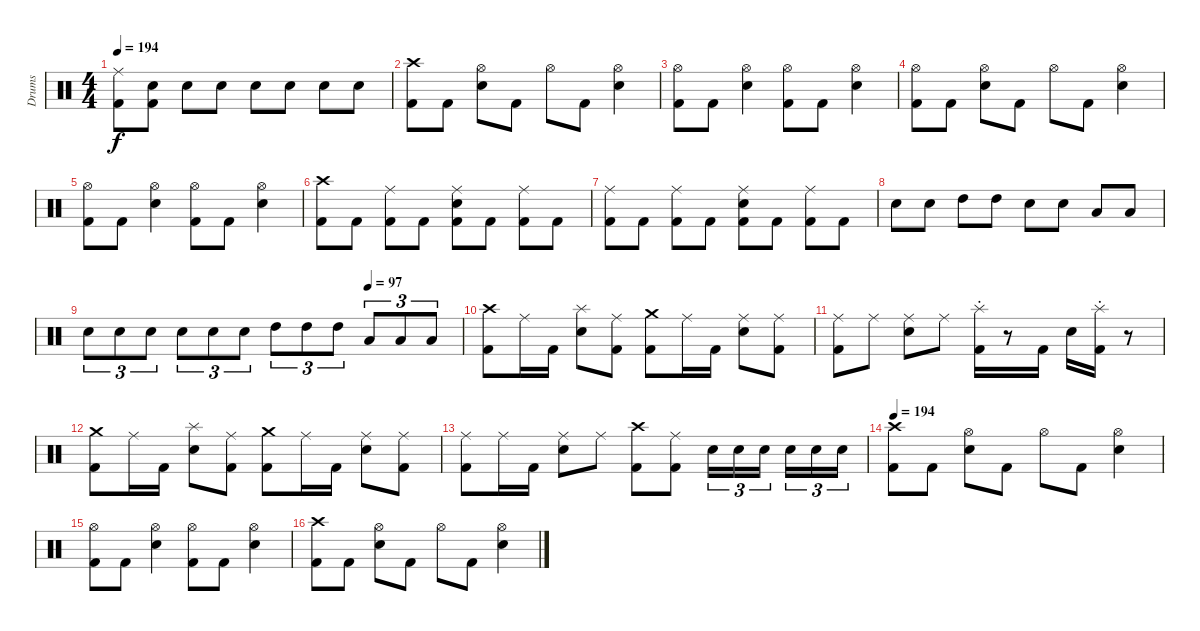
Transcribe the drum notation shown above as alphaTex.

\track ("Drums" "Drums") {instrument percussion}
\staff {score}
\articulation defaults
\ts (4 4)
\tempo 194
\clef neutral
\ks c
("Ride (middle)" "Kick (hit) 2").8{dy f} ("Electric Snare (hit)" "Kick (hit) 2").8 "Electric Snare (hit)".8 "Electric Snare (hit)".8 "Electric Snare (hit)".8 "Electric Snare (hit)".8 "Electric Snare (hit)".8 "Electric Snare (hit)".8 |
("Crash high (hit)" "Kick (hit) 2").8 "Kick (hit) 2".8 ("Hi-Hat (open)" "Electric Snare (hit)").8 "Kick (hit) 2".8 "Hi-Hat (open)".8 "Kick (hit) 2".8 ("Hi-Hat (open)" "Electric Snare (hit)").4 |
("Hi-Hat (open)" "Kick (hit) 2").8 "Kick (hit) 2".8 ("Hi-Hat (open)" "Electric Snare (hit)").4 ("Hi-Hat (open)" "Kick (hit) 2").8 "Kick (hit) 2".8 ("Hi-Hat (open)" "Electric Snare (hit)").4 |
("Hi-Hat (open)" "Kick (hit) 2").8 "Kick (hit) 2".8 ("Hi-Hat (open)" "Electric Snare (hit)").8 "Kick (hit) 2".8 "Hi-Hat (open)".8 "Kick (hit) 2".8 ("Hi-Hat (open)" "Electric Snare (hit)").4 |
("Hi-Hat (open)" "Kick (hit) 2").8 "Kick (hit) 2".8 ("Hi-Hat (open)" "Electric Snare (hit)").4 ("Hi-Hat (open)" "Kick (hit) 2").8 "Kick (hit) 2".8 ("Hi-Hat (open)" "Electric Snare (hit)").4 |
("Crash high (hit)" "Kick (hit) 2").8 "Kick (hit) 2".8 ("Ride (middle)" "Kick (hit) 2").8 "Kick (hit) 2".8 ("Ride (middle)" "Electric Snare (hit)" "Kick (hit) 2").8 "Kick (hit) 2".8 ("Ride (middle)" "Kick (hit) 2").8 "Kick (hit) 2".8 |
("Ride (middle)" "Kick (hit) 2").8 "Kick (hit) 2".8 ("Ride (middle)" "Kick (hit) 2").8 "Kick (hit) 2".8 ("Ride (middle)" "Electric Snare (hit)" "Kick (hit) 2").8 "Kick (hit) 2".8 ("Ride (middle)" "Kick (hit) 2").8 "Kick (hit) 2".8 |
"Electric Snare (hit)".8 "Electric Snare (hit)".8 "High Tom (hit)".8 "High Tom (hit)".8 "Electric Snare (hit)".8 "Electric Snare (hit)".8 "Low Tom (hit)".8 "Low Tom (hit)".8 |
\tempo (97 0.75)
"Electric Snare (hit)".8{tu (3 2)} "Electric Snare (hit)".8{tu (3 2)} "Electric Snare (hit)".8{tu (3 2)} "Electric Snare (hit)".8{tu (3 2)} "Electric Snare (hit)".8{tu (3 2)} "Electric Snare (hit)".8{tu (3 2)} "High Tom (hit)".8{tu (3 2)} "High Tom (hit)".8{tu (3 2)} "High Tom (hit)".8{tu (3 2)} "Low Tom (hit)".8{tu (3 2)} "Low Tom (hit)".8{tu (3 2)} "Low Tom (hit)".8{tu (3 2)} |
("Crash high (hit)" "Kick (hit) 2").8 "Ride (middle)".16 "Kick (hit) 2".16 ("Splash (hit)" "Electric Snare (hit)").8 ("Ride (middle)" "Kick (hit) 2").8 ("Crash medium (hit)" "Kick (hit) 2").8 "Ride (middle)".16 "Kick (hit) 2".16 ("Ride (middle)" "Electric Snare (hit)").8 ("Ride (middle)" "Kick (hit) 2").8 |
("Ride (middle)" "Kick (hit) 2").8 "Ride (middle)".8 ("Ride (middle)" "Electric Snare (hit)").8 "Ride (middle)".8 ("Splash (hit)"{st} "Kick (hit) 2").16 r.8 "Kick (hit) 2".16 "Electric Snare (hit)".16 ("Splash (hit)"{st} "Kick (hit) 2").16 r.8 |
("Crash medium (hit)" "Kick (hit) 2").8 "Ride (middle)".16 "Kick (hit) 2".16 ("Splash (hit)" "Electric Snare (hit)").8 ("Ride (middle)" "Kick (hit) 2").8 ("Crash medium (hit)" "Kick (hit) 2").8 "Ride (middle)".16 "Kick (hit) 2".16 ("Ride (middle)" "Electric Snare (hit)").8 ("Ride (middle)" "Kick (hit) 2").8 |
("Ride (middle)" "Kick (hit) 2").8 "Ride (middle)".16 "Kick (hit) 2".16 ("Ride (middle)" "Electric Snare (hit)").8 "Ride (middle)".8 ("Crash high (hit)" "Kick (hit) 2").8 ("Ride (middle)" "Kick (hit) 2").8 "Electric Snare (hit)".16{tu (3 2)} "Electric Snare (hit)".16{tu (3 2)} "Electric Snare (hit)".16{tu (3 2)} "Electric Snare (hit)".16{tu (3 2)} "Electric Snare (hit)".16{tu (3 2)} "Electric Snare (hit)".16{tu (3 2)} |
\tempo 194
("Crash high (hit)" "Kick (hit) 2").8 "Kick (hit) 2".8 ("Hi-Hat (open)" "Electric Snare (hit)").8 "Kick (hit) 2".8 "Hi-Hat (open)".8 "Kick (hit) 2".8 ("Hi-Hat (open)" "Electric Snare (hit)").4 |
("Hi-Hat (open)" "Kick (hit) 2").8 "Kick (hit) 2".8 ("Hi-Hat (open)" "Electric Snare (hit)").4 ("Hi-Hat (open)" "Kick (hit) 2").8 "Kick (hit) 2".8 ("Hi-Hat (open)" "Electric Snare (hit)").4 |
("Crash high (hit)" "Kick (hit) 2").8 "Kick (hit) 2".8 ("Hi-Hat (open)" "Electric Snare (hit)").8 "Kick (hit) 2".8 "Hi-Hat (open)".8 "Kick (hit) 2".8 ("Hi-Hat (open)" "Electric Snare (hit)").4
